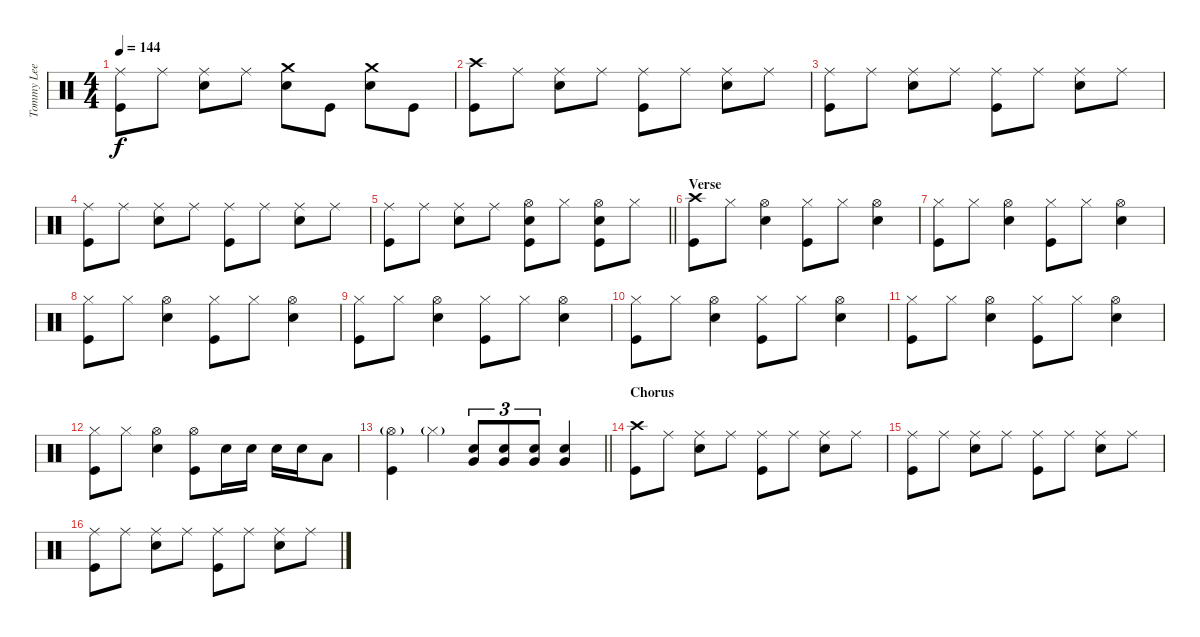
\track ("Tommy Lee" "Tommy Lee") {instrument percussion}
\staff {score}
\articulation defaults
\ts (4 4)
\tempo 144
\clef neutral
\ks c
("Ride (middle)" "Kick (hit)").8{dy f} "Ride (middle)".8 ("Ride (middle)" "Snare (hit) 2").8 "Ride (middle)".8 ("Crash medium (hit)" "Snare (hit) 2").8 "Kick (hit)".8 ("Crash medium (hit)" "Snare (hit) 2").8 "Kick (hit)".8 |
("Crash high (hit)" "Kick (hit)").8 "Ride (middle)".8 ("Ride (middle)" "Snare (hit) 2").8 "Ride (middle)".8 ("Ride (middle)" "Kick (hit)").8 "Ride (middle)".8 ("Ride (middle)" "Snare (hit) 2").8 "Ride (middle)".8 |
("Ride (middle)" "Kick (hit)").8 "Ride (middle)".8 ("Ride (middle)" "Snare (hit) 2").8 "Ride (middle)".8 ("Ride (middle)" "Kick (hit)").8 "Ride (middle)".8 ("Ride (middle)" "Snare (hit) 2").8 "Ride (middle)".8 |
("Ride (middle)" "Kick (hit)").8 "Ride (middle)".8 ("Ride (middle)" "Snare (hit) 2").8 "Ride (middle)".8 ("Ride (middle)" "Kick (hit)").8 "Ride (middle)".8 ("Ride (middle)" "Snare (hit) 2").8 "Ride (middle)".8 |
\barLineRight lightlight
("Ride (middle)" "Kick (hit)").8 "Ride (middle)".8 ("Ride (middle)" "Snare (hit) 2").8 "Ride (middle)".8 ("Hi-Hat (open)" "Snare (hit) 2" "Kick (hit)").8 "Hi-Hat (closed)".8 ("Hi-Hat (open)" "Snare (hit) 2" "Kick (hit)").8 "Hi-Hat (closed)".8 |
\section ("" "Verse")
("Crash high (hit)" "Kick (hit)").8 "Hi-Hat (closed)".8 ("Hi-Hat (open)" "Snare (hit) 2").4 ("Hi-Hat (closed)" "Kick (hit)").8 "Hi-Hat (closed)".8 ("Hi-Hat (open)" "Snare (hit) 2").4 |
("Hi-Hat (closed)" "Kick (hit)").8 "Hi-Hat (closed)".8 ("Hi-Hat (open)" "Snare (hit) 2").4 ("Hi-Hat (closed)" "Kick (hit)").8 "Hi-Hat (closed)".8 ("Hi-Hat (open)" "Snare (hit) 2").4 |
("Hi-Hat (closed)" "Kick (hit)").8 "Hi-Hat (closed)".8 ("Hi-Hat (open)" "Snare (hit) 2").4 ("Hi-Hat (closed)" "Kick (hit)").8 "Hi-Hat (closed)".8 ("Hi-Hat (open)" "Snare (hit) 2").4 |
("Hi-Hat (closed)" "Kick (hit)").8 "Hi-Hat (closed)".8 ("Hi-Hat (open)" "Snare (hit) 2").4 ("Hi-Hat (closed)" "Kick (hit)").8 "Hi-Hat (closed)".8 ("Hi-Hat (open)" "Snare (hit) 2").4 |
("Hi-Hat (closed)" "Kick (hit)").8 "Hi-Hat (closed)".8 ("Hi-Hat (open)" "Snare (hit) 2").4 ("Hi-Hat (closed)" "Kick (hit)").8 "Hi-Hat (closed)".8 ("Hi-Hat (open)" "Snare (hit) 2").4 |
("Hi-Hat (closed)" "Kick (hit)").8 "Hi-Hat (closed)".8 ("Hi-Hat (open)" "Snare (hit) 2").4 ("Hi-Hat (closed)" "Kick (hit)").8 "Hi-Hat (closed)".8 ("Hi-Hat (open)" "Snare (hit) 2").4 |
("Hi-Hat (closed)" "Kick (hit)").8 "Hi-Hat (closed)".8 ("Hi-Hat (open)" "Snare (hit) 2").4 ("Hi-Hat (open)" "Kick (hit)").8 "Snare (hit) 2".16 "Snare (hit) 2".16 "Snare (hit) 2".16 "Snare (hit) 2".16 "Low Tom (hit)".8 |
\barLineRight lightlight
("Hi-Hat (open)"{g} "Kick (hit)").4 "Hi-Hat (closed)"{g}.4 ("Very Low Tom (hit)" "Snare (hit) 2").8{tu (3 2)} ("Very Low Tom (hit)" "Snare (hit) 2").8{tu (3 2)} ("Very Low Tom (hit)" "Snare (hit) 2").8{tu (3 2)} ("Very Low Tom (hit)" "Snare (hit) 2").4 |
\section ("" "Chorus")
("Crash high (hit)" "Kick (hit)").8 "Ride (middle)".8 ("Ride (middle)" "Snare (hit) 2").8 "Ride (middle)".8 ("Ride (middle)" "Kick (hit)").8 "Ride (middle)".8 ("Ride (middle)" "Snare (hit) 2").8 "Ride (middle)".8 |
("Ride (middle)" "Kick (hit)").8 "Ride (middle)".8 ("Ride (middle)" "Snare (hit) 2").8 "Ride (middle)".8 ("Ride (middle)" "Kick (hit)").8 "Ride (middle)".8 ("Ride (middle)" "Snare (hit) 2").8 "Ride (middle)".8 |
("Ride (middle)" "Kick (hit)").8 "Ride (middle)".8 ("Ride (middle)" "Snare (hit) 2").8 "Ride (middle)".8 ("Ride (middle)" "Kick (hit)").8 "Ride (middle)".8 ("Ride (middle)" "Snare (hit) 2").8 "Ride (middle)".8
